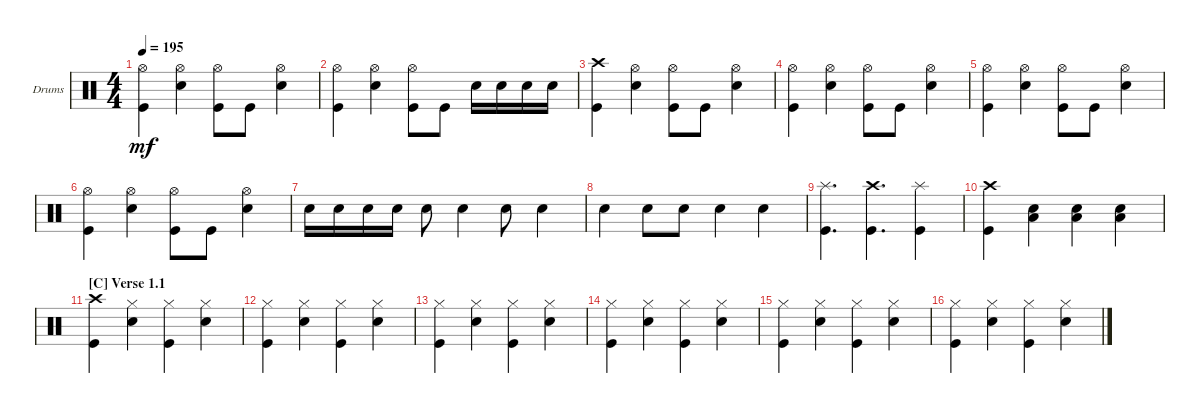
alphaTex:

\defaultSystemsLayout 4
\bracketExtendMode groupsimilarinstruments
\firstSystemTrackNameOrientation horizontal
\otherSystemsTrackNameOrientation horizontal
\track ("Drumkit" "Drums") {instrument percussion}
\staff {score}
\articulation defaults
\ts (4 4)
\tempo 195
\clef neutral
\ks c
("Kick (hit)" "Hi-Hat (open)").4{dy mf} ("Snare (hit) 2" "Hi-Hat (open)").4 ("Kick (hit)" "Hi-Hat (open)").8 "Kick (hit)".8 ("Snare (hit) 2" "Hi-Hat (open)").4 |
("Kick (hit)" "Hi-Hat (open)").4 ("Snare (hit) 2" "Hi-Hat (open)").4 ("Kick (hit)" "Hi-Hat (open)").8 "Kick (hit)".8 "Snare (hit) 2".16 "Snare (hit) 2".16 "Snare (hit) 2".16 "Snare (hit) 2".16 |
("Kick (hit)" "Crash high (hit)").4 ("Snare (hit) 2" "Hi-Hat (open)").4 ("Kick (hit)" "Hi-Hat (open)").8 "Kick (hit)".8 ("Snare (hit) 2" "Hi-Hat (open)").4 |
("Kick (hit)" "Hi-Hat (open)").4 ("Snare (hit) 2" "Hi-Hat (open)").4 ("Kick (hit)" "Hi-Hat (open)").8 "Kick (hit)".8 ("Snare (hit) 2" "Hi-Hat (open)").4 |
("Kick (hit)" "Hi-Hat (open)").4 ("Snare (hit) 2" "Hi-Hat (open)").4 ("Kick (hit)" "Hi-Hat (open)").8 "Kick (hit)".8 ("Snare (hit) 2" "Hi-Hat (open)").4 |
("Kick (hit)" "Hi-Hat (open)").4 ("Snare (hit) 2" "Hi-Hat (open)").4 ("Kick (hit)" "Hi-Hat (open)").8 "Kick (hit)".8 ("Snare (hit) 2" "Hi-Hat (open)").4 |
"Snare (hit) 2".16 "Snare (hit) 2".16 "Snare (hit) 2".16 "Snare (hit) 2".16 "Snare (hit) 2".8 "Snare (hit) 2".4 "Snare (hit) 2".8 "Snare (hit) 2".4 |
"Snare (hit) 2".4 "Snare (hit) 2".8 "Snare (hit) 2".8 "Snare (hit) 2".4 "Snare (hit) 2".4 |
("Kick (hit)" "Splash (hit)").4{d} ("Kick (hit)" "Crash high (hit)").4{d} ("Kick (hit)" "Splash (hit)").4 |
("Crash high (hit)" "Kick (hit)").4 ("Low Tom (hit)" "Snare (hit) 2").4 ("Low Tom (hit)" "Snare (hit) 2").4 ("Low Tom (hit)" "Snare (hit) 2").4 |
\section ("C" "Verse 1.1")
("Crash high (hit)" "Kick (hit)").4 ("Snare (hit) 2" "Hi-Hat (closed)").4 ("Kick (hit)" "Hi-Hat (closed)").4 ("Snare (hit) 2" "Hi-Hat (closed)").4 |
("Kick (hit)" "Hi-Hat (closed)").4 ("Snare (hit) 2" "Hi-Hat (closed)").4 ("Kick (hit)" "Hi-Hat (closed)").4 ("Snare (hit) 2" "Hi-Hat (closed)").4 |
("Kick (hit)" "Hi-Hat (closed)").4 ("Snare (hit) 2" "Hi-Hat (closed)").4 ("Kick (hit)" "Hi-Hat (closed)").4 ("Snare (hit) 2" "Hi-Hat (closed)").4 |
("Kick (hit)" "Hi-Hat (closed)").4 ("Snare (hit) 2" "Hi-Hat (closed)").4 ("Kick (hit)" "Hi-Hat (closed)").4 ("Snare (hit) 2" "Hi-Hat (closed)").4 |
("Kick (hit)" "Hi-Hat (closed)").4 ("Snare (hit) 2" "Hi-Hat (closed)").4 ("Kick (hit)" "Hi-Hat (closed)").4 ("Snare (hit) 2" "Hi-Hat (closed)").4 |
("Kick (hit)" "Hi-Hat (closed)").4 ("Snare (hit) 2" "Hi-Hat (closed)").4 ("Kick (hit)" "Hi-Hat (closed)").4 ("Snare (hit) 2" "Hi-Hat (closed)").4
